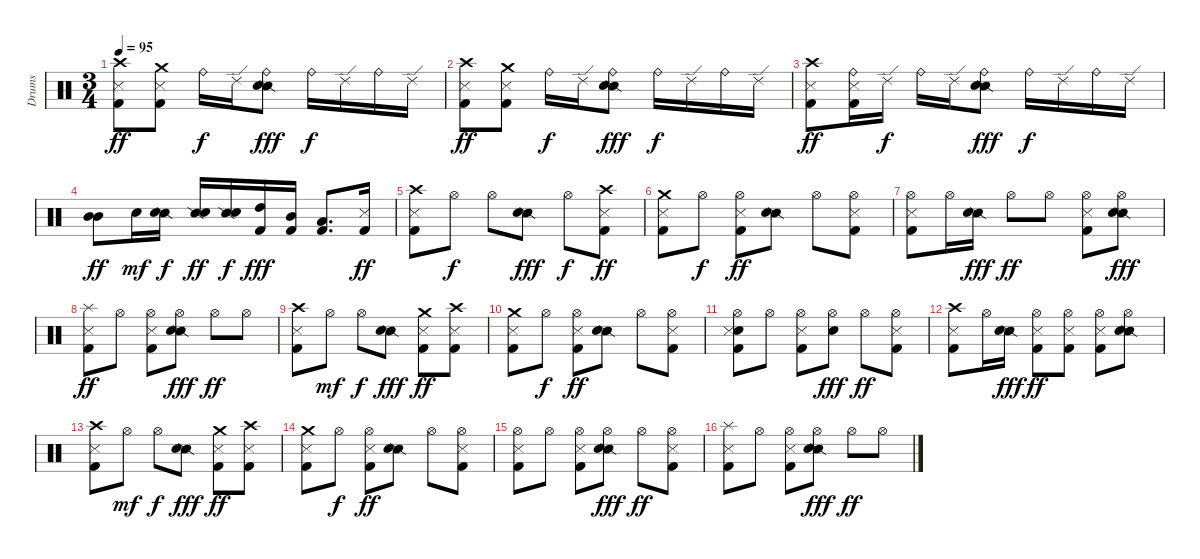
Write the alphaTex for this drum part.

\track ("Drums" "Drums") {instrument percussion}
\staff {score}
\articulation defaults
\ts (3 4)
\tempo 95
\clef neutral
\ks c
("Crash high (hit)" "Metronome (hit)" "Kick (hit) 2").8{dy ff} ("Crash medium (hit)" "Metronome (hit)" "Kick (hit) 2").8 "Ride (bell)".16{dy f} "Ride (edge) 2".16 ("Ride (bell)" "Snare (side stick) 2" "Electric Snare (hit)").8{dy fff} "Ride (bell)".16{dy f} "Ride (edge) 2".16 "Ride (bell)".16 "Ride (edge) 2".16 |
("Crash high (hit)" "Metronome (hit)" "Kick (hit) 2").8{dy ff} ("Crash medium (hit)" "Metronome (hit)" "Kick (hit) 2").8 "Ride (bell)".16{dy f} "Ride (edge) 2".16 ("Ride (bell)" "Snare (side stick) 2" "Electric Snare (hit)").8{dy fff} "Ride (bell)".16{dy f} "Ride (edge) 2".16 "Ride (bell)".16 "Ride (edge) 2".16 |
("Crash high (hit)" "Metronome (hit)" "Kick (hit) 2").8{dy ff} ("Ride (bell)" "Metronome (hit)" "Kick (hit) 2").16 "Ride (edge) 2".16{dy f} "Ride (bell)".16 "Ride (edge) 2".16 ("Ride (bell)" "Snare (side stick) 2" "Electric Snare (hit)").8{dy fff} "Ride (bell)".16{dy f} "Ride (edge) 2".16 "Ride (bell)".16 "Ride (edge) 2".16 |
("Mid Tom (hit)" "Mid Tom (hit)").8{dy ff} "Electric Snare (hit)".16{dy mf} ("Snare (side stick) 2" "Electric Snare (hit)").16{dy f} ("Snare (side stick) 2" "Electric Snare (hit)").16{dy ff} ("Snare (side stick) 2" "Electric Snare (hit)").16{dy f} ("High Tom (hit)" "Kick (hit) 2").16{dy fff} ("Mid Tom (hit)" "Kick (hit) 2").16 ("Low Tom (hit)" "Kick (hit) 2").8{d} ("Metronome (hit)" "Kick (hit) 2").16{dy ff} |
("Crash high (hit)" "Metronome (hit)" "Kick (hit) 2").8 "Hi-Hat (open)".8{dy f} "Hi-Hat (open)".8 ("Snare (side stick) 2" "Electric Snare (hit)").8{dy fff} "Hi-Hat (open)".8{dy f} ("Crash high (hit)" "Metronome (hit)" "Kick (hit) 2").8{dy ff} |
("Crash medium (hit)" "Metronome (hit)" "Kick (hit) 2").8 "Hi-Hat (open)".8{dy f} ("Hi-Hat (open)" "Metronome (hit)" "Kick (hit) 2").8{dy ff} ("Snare (side stick) 2" "Electric Snare (hit)").8 "Hi-Hat (open)".8 ("Hi-Hat (open)" "Metronome (hit)" "Kick (hit) 2").8 |
("Hi-Hat (open)" "Metronome (hit)" "Kick (hit) 2").8 "Hi-Hat (open)".16 ("Snare (side stick) 2" "Electric Snare (hit)").16{dy fff} "Hi-Hat (open)".8{dy ff} "Hi-Hat (open)".8 ("Hi-Hat (open)" "Metronome (hit)" "Kick (hit) 2").8 ("Hi-Hat (open)" "Snare (side stick) 2" "Electric Snare (hit)").8{dy fff} |
("Splash (hit)" "Metronome (hit)" "Kick (hit) 2").8{dy ff} "Hi-Hat (open)".8 ("Hi-Hat (open)" "Metronome (hit)" "Kick (hit) 2").8 ("Hi-Hat (open)" "Snare (side stick) 2" "Electric Snare (hit)").8{dy fff} "Hi-Hat (open)".8{dy ff} "Hi-Hat (open)".8 |
("Crash high (hit)" "Metronome (hit)" "Kick (hit) 2").8 "Hi-Hat (open)".8{dy mf} "Hi-Hat (open)".8{dy f} ("Snare (side stick) 2" "Electric Snare (hit)").8{dy fff} ("Crash medium (hit)" "Metronome (hit)" "Kick (hit) 2").8{dy ff} ("Crash high (hit)" "Metronome (hit)" "Kick (hit) 2").8 |
("Crash medium (hit)" "Metronome (hit)" "Kick (hit) 2").8 "Hi-Hat (open)".8{dy f} ("Hi-Hat (open)" "Metronome (hit)" "Kick (hit) 2").8{dy ff} ("Snare (side stick) 2" "Electric Snare (hit)").8 "Hi-Hat (open)".8 ("Hi-Hat (open)" "Metronome (hit)" "Kick (hit) 2").8 |
("Hi-Hat (open)" "Electric Snare (hit)" "Metronome (hit)" "Kick (hit) 2").8 "Hi-Hat (open)".8 ("Hi-Hat (open)" "Metronome (hit)" "Kick (hit) 2").8 ("Hi-Hat (open)" "Electric Snare (hit)").8{dy fff} "Hi-Hat (open)".8{dy ff} ("Hi-Hat (open)" "Metronome (hit)" "Kick (hit) 2").8 |
("Crash high (hit)" "Metronome (hit)" "Kick (hit) 2").8 "Hi-Hat (open)".16 ("Snare (side stick) 2" "Electric Snare (hit)").16{dy fff} ("Hi-Hat (open)" "Metronome (hit)" "Kick (hit) 2").8{dy ff} ("Hi-Hat (open)" "Metronome (hit)" "Kick (hit) 2").8 ("Hi-Hat (open)" "Metronome (hit)" "Kick (hit) 2").8 ("Hi-Hat (open)" "Snare (side stick) 2" "Electric Snare (hit)").8 |
("Crash high (hit)" "Metronome (hit)" "Kick (hit) 2").8 "Hi-Hat (open)".8{dy mf} "Hi-Hat (open)".8{dy f} ("Snare (side stick) 2" "Electric Snare (hit)").8{dy fff} ("Crash medium (hit)" "Metronome (hit)" "Kick (hit) 2").8{dy ff} ("Crash high (hit)" "Metronome (hit)" "Kick (hit) 2").8 |
("Crash medium (hit)" "Metronome (hit)" "Kick (hit) 2").8 "Hi-Hat (open)".8{dy f} ("Hi-Hat (open)" "Metronome (hit)" "Kick (hit) 2").8{dy ff} ("Snare (side stick) 2" "Electric Snare (hit)").8 "Hi-Hat (open)".8 ("Hi-Hat (open)" "Metronome (hit)" "Kick (hit) 2").8 |
("Hi-Hat (open)" "Metronome (hit)" "Kick (hit) 2").8 "Hi-Hat (open)".8 ("Hi-Hat (open)" "Metronome (hit)" "Kick (hit) 2").8 ("Hi-Hat (open)" "Snare (side stick) 2" "Electric Snare (hit)").8{dy fff} "Hi-Hat (open)".8{dy ff} ("Hi-Hat (open)" "Metronome (hit)" "Kick (hit) 2").8 |
("Splash (hit)" "Metronome (hit)" "Kick (hit) 2").8 "Hi-Hat (open)".8 ("Hi-Hat (open)" "Metronome (hit)" "Kick (hit) 2").8 ("Hi-Hat (open)" "Snare (side stick) 2" "Electric Snare (hit)").8{dy fff} "Hi-Hat (open)".8{dy ff} "Hi-Hat (open)".8
